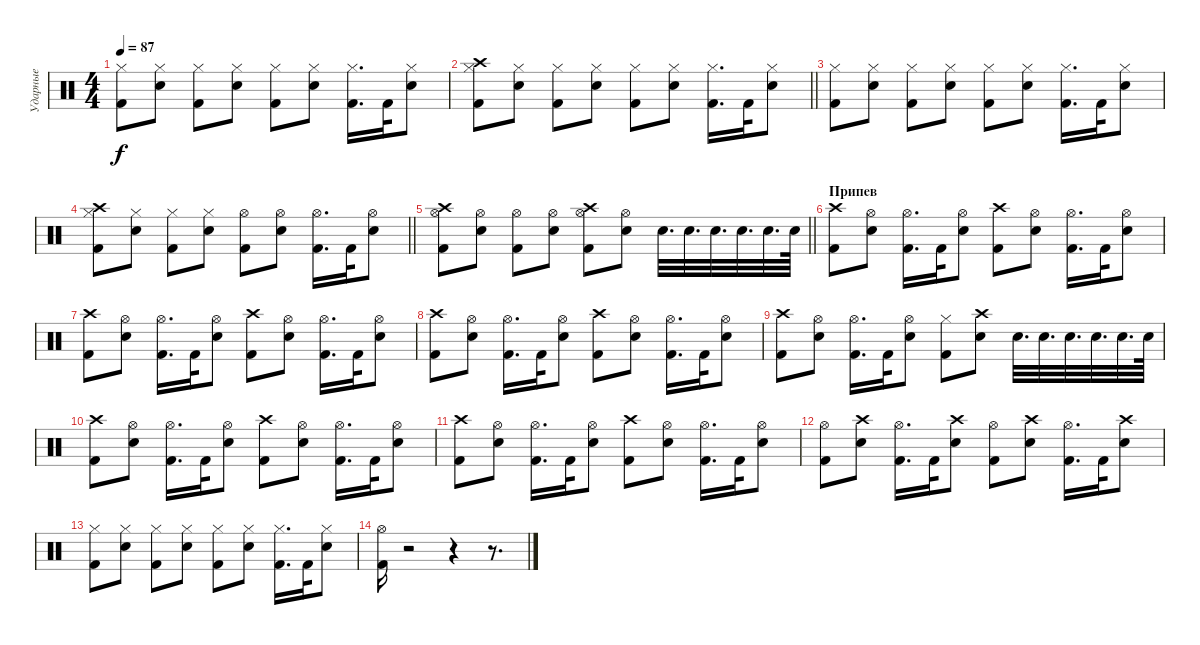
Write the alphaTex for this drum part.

\track ("Ударные" "Ударные") {instrument percussion}
\staff {score}
\articulation defaults
\ts (4 4)
\tempo 87
\clef neutral
\ks c
("Hi-Hat (closed)" "Kick (hit) 2").8{dy f} ("Hi-Hat (closed)" "Snare (hit) 2").8 ("Hi-Hat (closed)" "Kick (hit) 2").8 ("Hi-Hat (closed)" "Snare (hit) 2").8 ("Hi-Hat (closed)" "Kick (hit) 2").8 ("Hi-Hat (closed)" "Snare (hit) 2").8 ("Hi-Hat (closed)" "Kick (hit) 2").16{d} "Kick (hit) 2".32 ("Hi-Hat (closed)" "Snare (hit) 2").8 |
\barLineRight lightlight
("Hi-Hat (closed)" "Crash high (hit)" "Kick (hit) 2").8 ("Hi-Hat (closed)" "Snare (hit) 2").8 ("Hi-Hat (closed)" "Kick (hit) 2").8 ("Hi-Hat (closed)" "Snare (hit) 2").8 ("Hi-Hat (closed)" "Kick (hit) 2").8 ("Hi-Hat (closed)" "Snare (hit) 2").8 ("Hi-Hat (closed)" "Kick (hit) 2").16{d} "Kick (hit) 2".32 ("Hi-Hat (closed)" "Snare (hit) 2").8 |
("Hi-Hat (closed)" "Kick (hit) 2").8 ("Hi-Hat (closed)" "Snare (hit) 2").8 ("Hi-Hat (closed)" "Kick (hit) 2").8 ("Hi-Hat (closed)" "Snare (hit) 2").8 ("Hi-Hat (closed)" "Kick (hit) 2").8 ("Hi-Hat (closed)" "Snare (hit) 2").8 ("Hi-Hat (closed)" "Kick (hit) 2").16{d} "Kick (hit) 2".32 ("Hi-Hat (closed)" "Snare (hit) 2").8 |
\barLineRight lightlight
("Hi-Hat (closed)" "Crash high (hit)" "Kick (hit) 2").8 ("Hi-Hat (closed)" "Snare (hit) 2").8 ("Hi-Hat (closed)" "Kick (hit) 2").8 ("Hi-Hat (closed)" "Snare (hit) 2").8 ("Hi-Hat (open)" "Kick (hit) 2").8 ("Hi-Hat (open)" "Snare (hit) 2").8 ("Hi-Hat (open)" "Kick (hit) 2").16{d} "Kick (hit) 2".32 ("Hi-Hat (open)" "Snare (hit) 2").8 |
\barLineRight lightlight
("Hi-Hat (open)" "Crash high (hit)" "Kick (hit) 2").8 ("Hi-Hat (open)" "Snare (hit) 2").8 ("Hi-Hat (open)" "Kick (hit) 2").8 ("Hi-Hat (open)" "Snare (hit) 2").8 ("Hi-Hat (open)" "Crash high (hit)" "Kick (hit) 2").8 ("Hi-Hat (open)" "Snare (hit) 2").8 "Snare (hit) 2".32{d} "Snare (hit) 2".32{d} "Snare (hit) 2".32{d} "Snare (hit) 2".32{d} "Snare (hit) 2".32{d} "Snare (hit) 2".64 |
\section ("" "Припев")
("Crash high (hit)" "Kick (hit) 2").8 ("Hi-Hat (open)" "Snare (hit) 2").8 ("Hi-Hat (open)" "Kick (hit) 2").16{d} "Kick (hit) 2".32 ("Hi-Hat (open)" "Snare (hit) 2").8 ("Crash high (hit)" "Kick (hit) 2").8 ("Hi-Hat (open)" "Snare (hit) 2").8 ("Hi-Hat (open)" "Kick (hit) 2").16{d} "Kick (hit) 2".32 ("Hi-Hat (open)" "Snare (hit) 2").8 |
("Crash high (hit)" "Kick (hit) 2").8 ("Hi-Hat (open)" "Snare (hit) 2").8 ("Hi-Hat (open)" "Kick (hit) 2").16{d} "Kick (hit) 2".32 ("Hi-Hat (open)" "Snare (hit) 2").8 ("Crash high (hit)" "Kick (hit) 2").8 ("Hi-Hat (open)" "Snare (hit) 2").8 ("Hi-Hat (open)" "Kick (hit) 2").16{d} "Kick (hit) 2".32 ("Hi-Hat (open)" "Snare (hit) 2").8 |
("Crash high (hit)" "Kick (hit) 2").8 ("Hi-Hat (open)" "Snare (hit) 2").8 ("Hi-Hat (open)" "Kick (hit) 2").16{d} "Kick (hit) 2".32 ("Hi-Hat (open)" "Snare (hit) 2").8 ("Crash high (hit)" "Kick (hit) 2").8 ("Hi-Hat (open)" "Snare (hit) 2").8 ("Hi-Hat (open)" "Kick (hit) 2").16{d} "Kick (hit) 2".32 ("Hi-Hat (open)" "Snare (hit) 2").8 |
("Crash high (hit)" "Kick (hit) 2").8 ("Hi-Hat (open)" "Snare (hit) 2").8 ("Hi-Hat (open)" "Kick (hit) 2").16{d} "Kick (hit) 2".32 ("Hi-Hat (open)" "Snare (hit) 2").8 ("Hi-Hat (closed)" "Kick (hit) 2").8 ("Crash high (hit)" "Snare (hit) 2").8 "Snare (hit) 2".32{d} "Snare (hit) 2".32{d} "Snare (hit) 2".32{d} "Snare (hit) 2".32{d} "Snare (hit) 2".32{d} "Snare (hit) 2".64 |
("Crash high (hit)" "Kick (hit) 2").8 ("Hi-Hat (open)" "Snare (hit) 2").8 ("Hi-Hat (open)" "Kick (hit) 2").16{d} "Kick (hit) 2".32 ("Hi-Hat (open)" "Snare (hit) 2").8 ("Crash high (hit)" "Kick (hit) 2").8 ("Hi-Hat (open)" "Snare (hit) 2").8 ("Hi-Hat (open)" "Kick (hit) 2").16{d} "Kick (hit) 2".32 ("Hi-Hat (open)" "Snare (hit) 2").8 |
("Crash high (hit)" "Kick (hit) 2").8 ("Hi-Hat (open)" "Snare (hit) 2").8 ("Hi-Hat (open)" "Kick (hit) 2").16{d} "Kick (hit) 2".32 ("Hi-Hat (open)" "Snare (hit) 2").8 ("Crash high (hit)" "Kick (hit) 2").8 ("Hi-Hat (open)" "Snare (hit) 2").8 ("Hi-Hat (open)" "Kick (hit) 2").16{d} "Kick (hit) 2".32 ("Hi-Hat (open)" "Snare (hit) 2").8 |
("Hi-Hat (open)" "Kick (hit) 2").8 ("Crash high (hit)" "Snare (hit) 2").8 ("Hi-Hat (open)" "Kick (hit) 2").16{d} "Kick (hit) 2".32 ("Crash high (hit)" "Snare (hit) 2").8 ("Hi-Hat (open)" "Kick (hit) 2").8 ("Crash high (hit)" "Snare (hit) 2").8 ("Hi-Hat (open)" "Kick (hit) 2").16{d} "Kick (hit) 2".32 ("Crash high (hit)" "Snare (hit) 2").8 |
("Hi-Hat (closed)" "Kick (hit) 2").8 ("Hi-Hat (closed)" "Snare (hit) 2").8 ("Hi-Hat (closed)" "Kick (hit) 2").8 ("Hi-Hat (closed)" "Snare (hit) 2").8 ("Hi-Hat (closed)" "Kick (hit) 2").8 ("Hi-Hat (closed)" "Snare (hit) 2").8 ("Hi-Hat (closed)" "Kick (hit) 2").16{d} "Kick (hit) 2".32 ("Hi-Hat (closed)" "Snare (hit) 2").8 |
("Hi-Hat (open)" "Kick (hit) 2").16 r.2 r.4 r.8{d}
